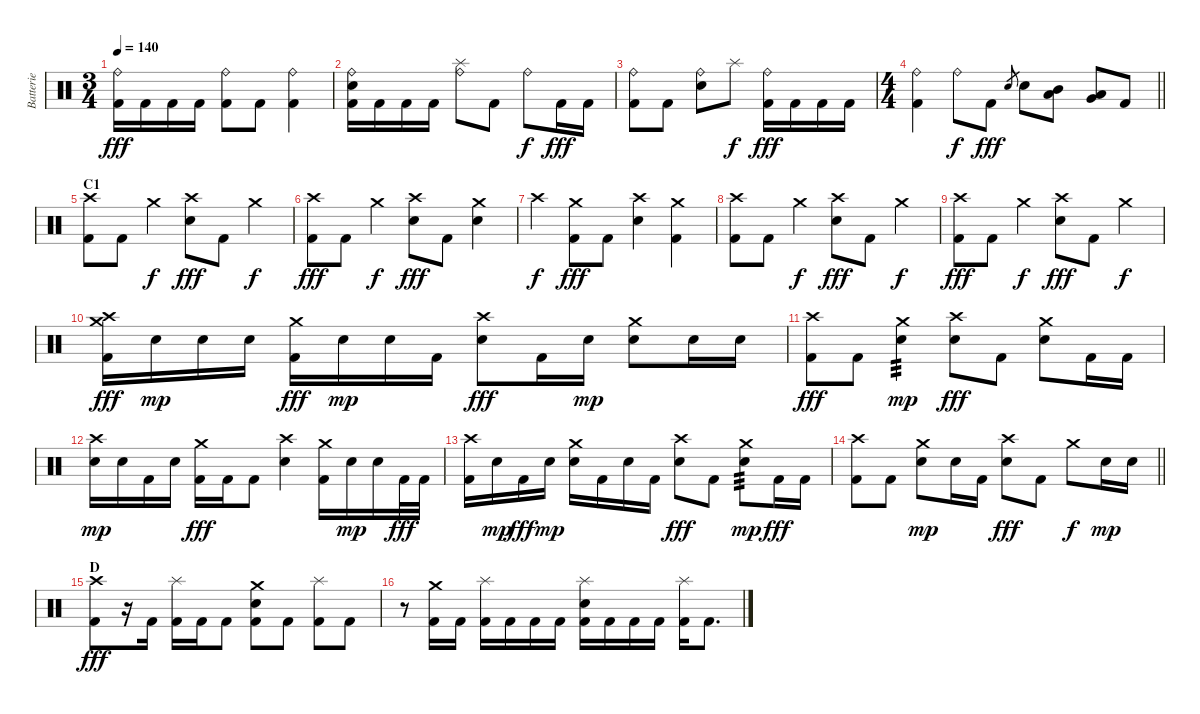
\track ("Batterie" "Batterie") {instrument percussion}
\staff {score}
\articulation defaults
\ts (3 4)
\tempo 140
\clef neutral
\ks c
("Ride (bell)" "Kick (hit) 2").16{dy fff} "Kick (hit) 2".16 "Kick (hit) 2".16 "Kick (hit) 2".16 ("Ride (bell)" "Kick (hit) 2").8 "Kick (hit) 2".8 ("Ride (bell)" "Kick (hit) 2").4 |
("Ride (bell)" "Electric Snare (hit)" "Kick (hit) 2").16 "Kick (hit) 2".16 "Kick (hit) 2".16 "Kick (hit) 2".16 ("Ride (bell)" "Splash (hit)").8 "Kick (hit) 2".8 "Ride (bell)".8{dy f} "Kick (hit) 2".16{dy fff} "Kick (hit) 2".16 |
("Ride (bell)" "Kick (hit) 2").8 "Kick (hit) 2".8 ("Ride (bell)" "Electric Snare (hit)").8 "Splash (hit)".8{dy f} ("Ride (bell)" "Kick (hit) 2").16{dy fff} "Kick (hit) 2".16 "Kick (hit) 2".16 "Kick (hit) 2".16 |
\ts (4 4)
\barLineRight lightlight
("Ride (bell)" "Kick (hit) 2").4 "Ride (bell)".8{dy f} "Kick (hit) 2".8{dy fff} "Electric Snare (hit)".8{gr} "Electric Snare (hit)".8 ("Mid Tom (hit)" "Low Tom (hit)").8 ("Very Low Tom (hit)" "Low Floor Tom (hit)").8 "Kick (hit) 2".8 |
\section ("" "C1")
("Crash high (hit)" "Kick (hit) 2").8 "Kick (hit) 2".8 "Crash medium (hit)".4{dy f} ("Crash high (hit)" "Electric Snare (hit)").8{dy fff} "Kick (hit) 2".8 "Crash medium (hit)".4{dy f} |
("Crash high (hit)" "Kick (hit) 2").8{dy fff} "Kick (hit) 2".8 "Crash medium (hit)".4{dy f} ("Crash high (hit)" "Electric Snare (hit)").8{dy fff} "Kick (hit) 2".8 ("Crash medium (hit)" "Electric Snare (hit)").4 |
"Crash high (hit)".4{dy f} ("Crash medium (hit)" "Kick (hit) 2").8{dy fff} "Kick (hit) 2".8 ("Crash high (hit)" "Electric Snare (hit)").4 ("Crash medium (hit)" "Kick (hit) 2").4 |
("Crash high (hit)" "Kick (hit) 2").8 "Kick (hit) 2".8 "Crash medium (hit)".4{dy f} ("Crash high (hit)" "Electric Snare (hit)").8{dy fff} "Kick (hit) 2".8 "Crash medium (hit)".4{dy f} |
("Crash high (hit)" "Kick (hit) 2").8{dy fff} "Kick (hit) 2".8 "Crash medium (hit)".4{dy f} ("Crash high (hit)" "Electric Snare (hit)").8{dy fff} "Kick (hit) 2".8 "Crash medium (hit)".4{dy f} |
("Crash high (hit)" "Crash medium (hit)" "Kick (hit) 2").16{dy fff} "Electric Snare (hit)".16{dy mp} "Electric Snare (hit)".16 "Electric Snare (hit)".16 ("Crash medium (hit)" "Kick (hit) 2").16{dy fff} "Electric Snare (hit)".16{dy mp} "Electric Snare (hit)".16 "Kick (hit) 2".16 ("Crash high (hit)" "Electric Snare (hit)").8{dy fff} "Kick (hit) 2".16 "Electric Snare (hit)".16{dy mp} ("Crash medium (hit)" "Electric Snare (hit)").8 "Electric Snare (hit)".16 "Electric Snare (hit)".16 |
("Crash high (hit)" "Kick (hit) 2").8{dy fff} "Kick (hit) 2".8 ("Crash medium (hit)" "Electric Snare (hit)").4{tp 3 dy mp} ("Crash high (hit)" "Electric Snare (hit)").8{dy fff} "Kick (hit) 2".8 ("Crash medium (hit)" "Electric Snare (hit)").8 "Kick (hit) 2".16 "Kick (hit) 2".16 |
("Crash high (hit)" "Electric Snare (hit)").16{dy mp} "Electric Snare (hit)".16 "Kick (hit) 2".16 "Electric Snare (hit)".16 ("Crash medium (hit)" "Kick (hit) 2").16{dy fff} "Kick (hit) 2".16 "Kick (hit) 2".8 ("Crash high (hit)" "Electric Snare (hit)").4 ("Crash medium (hit)" "Kick (hit) 2").16 "Electric Snare (hit)".16{dy mp} "Electric Snare (hit)".16 "Kick (hit) 2".32{dy fff} "Kick (hit) 2".32 |
("Crash high (hit)" "Kick (hit) 2").16 "Electric Snare (hit)".16{dy mp} "Kick (hit) 2".16{dy fff} "Electric Snare (hit)".16{dy mp} ("Crash medium (hit)" "Electric Snare (hit)").16 "Kick (hit) 2".16 "Electric Snare (hit)".16 "Kick (hit) 2".16 ("Crash high (hit)" "Electric Snare (hit)").8{dy fff} "Kick (hit) 2".8 ("Crash medium (hit)" "Electric Snare (hit)").8{tp 3 dy mp} "Kick (hit) 2".16{dy fff} "Kick (hit) 2".16 |
\barLineRight lightlight
("Crash high (hit)" "Kick (hit) 2").8 "Kick (hit) 2".8 ("Crash medium (hit)" "Electric Snare (hit)").8{dy mp} "Electric Snare (hit)".16 "Kick (hit) 2".16 ("Crash high (hit)" "Electric Snare (hit)").8{dy fff} "Kick (hit) 2".8 "Crash medium (hit)".8{dy f} "Electric Snare (hit)".16{dy mp} "Electric Snare (hit)".16 |
\section ("" "D")
("Crash high (hit)" "Kick (hit) 2").8{dy fff} r.16 "Kick (hit) 2".16 ("Splash (hit)" "Kick (hit) 2").16 "Kick (hit) 2".16 "Kick (hit) 2".8 ("Crash medium (hit)" "Electric Snare (hit)" "Kick (hit) 2").8 "Kick (hit) 2".8 ("Splash (hit)" "Kick (hit) 2").8 "Kick (hit) 2".8 |
r.8 ("Crash medium (hit)" "Kick (hit) 2").16 "Kick (hit) 2".16 ("Splash (hit)" "Kick (hit) 2").16 "Kick (hit) 2".16 "Kick (hit) 2".16 "Kick (hit) 2".16 ("Splash (hit)" "Electric Snare (hit)" "Kick (hit) 2").16 "Kick (hit) 2".16 "Kick (hit) 2".16 "Kick (hit) 2".16 ("Splash (hit)" "Kick (hit) 2").16 "Kick (hit) 2".8{d}
